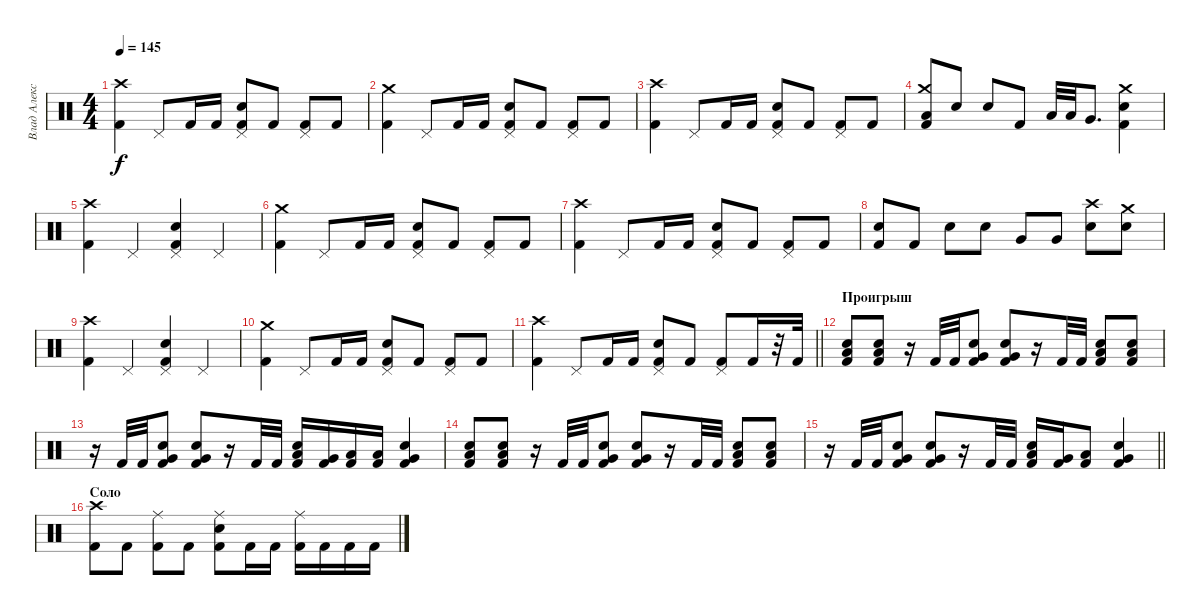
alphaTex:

\track ("Влад Алексеенко" "Влад Алекс") {instrument percussion}
\staff {score}
\articulation defaults
\ts (4 4)
\tempo 145
\clef neutral
\ks c
("Crash high (hit)" "Kick (hit) 2").4{dy f} "Pedal Hi-Hat (hit)".8 "Kick (hit) 2".16 "Kick (hit) 2".16 ("Pedal Hi-Hat (hit)" "Electric Snare (hit)" "Kick (hit) 2").8 "Kick (hit) 2".8 ("Pedal Hi-Hat (hit)" "Kick (hit) 2").8 "Kick (hit) 2".8 |
("Crash medium (hit)" "Kick (hit) 2").4 "Pedal Hi-Hat (hit)".8 "Kick (hit) 2".16 "Kick (hit) 2".16 ("Pedal Hi-Hat (hit)" "Electric Snare (hit)" "Kick (hit) 2").8 "Kick (hit) 2".8 ("Pedal Hi-Hat (hit)" "Kick (hit) 2").8 "Kick (hit) 2".8 |
("Crash high (hit)" "Kick (hit) 2").4 "Pedal Hi-Hat (hit)".8 "Kick (hit) 2".16 "Kick (hit) 2".16 ("Pedal Hi-Hat (hit)" "Electric Snare (hit)" "Kick (hit) 2").8 "Kick (hit) 2".8 ("Pedal Hi-Hat (hit)" "Kick (hit) 2").8 "Kick (hit) 2".8 |
("Low Tom (hit)" "Crash medium (hit)" "Kick (hit) 2").8 "Electric Snare (hit)".8 "Electric Snare (hit)".8 "Kick (hit) 2".8 "Low Tom (hit)".32 "Low Tom (hit)".32 "Very Low Tom (hit)".8{d} ("Crash medium (hit)" "Electric Snare (hit)" "Kick (hit) 2").4 |
("Crash high (hit)" "Kick (hit) 2").4 "Pedal Hi-Hat (hit)".4 ("Pedal Hi-Hat (hit)" "Electric Snare (hit)" "Kick (hit) 2").4 "Pedal Hi-Hat (hit)".4 |
("Crash medium (hit)" "Kick (hit) 2").4 "Pedal Hi-Hat (hit)".8 "Kick (hit) 2".16 "Kick (hit) 2".16 ("Pedal Hi-Hat (hit)" "Electric Snare (hit)" "Kick (hit) 2").8 "Kick (hit) 2".8 ("Pedal Hi-Hat (hit)" "Kick (hit) 2").8 "Kick (hit) 2".8 |
("Crash high (hit)" "Kick (hit) 2").4 "Pedal Hi-Hat (hit)".8 "Kick (hit) 2".16 "Kick (hit) 2".16 ("Pedal Hi-Hat (hit)" "Electric Snare (hit)" "Kick (hit) 2").8 "Kick (hit) 2".8 ("Pedal Hi-Hat (hit)" "Kick (hit) 2").8 "Kick (hit) 2".8 |
("Electric Snare (hit)" "Kick (hit) 2").8 "Kick (hit) 2".8 "Electric Snare (hit)".8 "Electric Snare (hit)".8 "Very Low Tom (hit)".8 "Very Low Tom (hit)".8 ("Crash high (hit)" "Electric Snare (hit)").8 ("Crash medium (hit)" "Electric Snare (hit)").8 |
("Crash high (hit)" "Kick (hit) 2").4 "Pedal Hi-Hat (hit)".4 ("Pedal Hi-Hat (hit)" "Electric Snare (hit)" "Kick (hit) 2").4 "Pedal Hi-Hat (hit)".4 |
("Crash medium (hit)" "Kick (hit) 2").4 "Pedal Hi-Hat (hit)".8 "Kick (hit) 2".16 "Kick (hit) 2".16 ("Pedal Hi-Hat (hit)" "Electric Snare (hit)" "Kick (hit) 2").8 "Kick (hit) 2".8 ("Pedal Hi-Hat (hit)" "Kick (hit) 2").8 "Kick (hit) 2".8 |
\barLineRight lightlight
("Crash high (hit)" "Kick (hit) 2").4 "Pedal Hi-Hat (hit)".8 "Kick (hit) 2".16 "Kick (hit) 2".16 ("Pedal Hi-Hat (hit)" "Electric Snare (hit)" "Kick (hit) 2").8 "Kick (hit) 2".8 ("Pedal Hi-Hat (hit)" "Kick (hit) 2").8 "Kick (hit) 2".16 r.32 "Kick (hit) 2".32 |
\section ("" "Проигрыш")
("Low Tom (hit)" "Electric Snare (hit)" "Kick (hit) 2").8 ("Low Tom (hit)" "Electric Snare (hit)" "Kick (hit) 2").8 r.16 "Kick (hit) 2".32 "Kick (hit) 2".32 ("Very Low Tom (hit)" "Electric Snare (hit)" "Kick (hit) 2").8 ("Very Low Tom (hit)" "Electric Snare (hit)" "Kick (hit) 2").8 r.16 "Kick (hit) 2".32 "Kick (hit) 2".32 ("Low Tom (hit)" "Electric Snare (hit)" "Kick (hit) 2").8 ("Low Tom (hit)" "Electric Snare (hit)" "Kick (hit) 2").8 |
r.16 "Kick (hit) 2".32 "Kick (hit) 2".32 ("Very Low Tom (hit)" "Electric Snare (hit)" "Kick (hit) 2").8 ("Very Low Tom (hit)" "Electric Snare (hit)" "Kick (hit) 2").8 r.16 "Kick (hit) 2".32 "Kick (hit) 2".32 ("Low Tom (hit)" "Electric Snare (hit)" "Kick (hit) 2").16 ("Very Low Tom (hit)" "Kick (hit) 2").16 ("Low Floor Tom (hit)" "Kick (hit) 2").16 ("Low Floor Tom (hit)" "Kick (hit) 2").16 ("Very Low Tom (hit)" "Electric Snare (hit)" "Kick (hit) 2").4 |
("Low Tom (hit)" "Electric Snare (hit)" "Kick (hit) 2").8 ("Low Tom (hit)" "Electric Snare (hit)" "Kick (hit) 2").8 r.16 "Kick (hit) 2".32 "Kick (hit) 2".32 ("Very Low Tom (hit)" "Electric Snare (hit)" "Kick (hit) 2").8 ("Very Low Tom (hit)" "Electric Snare (hit)" "Kick (hit) 2").8 r.16 "Kick (hit) 2".32 "Kick (hit) 2".32 ("Low Tom (hit)" "Electric Snare (hit)" "Kick (hit) 2").8 ("Low Tom (hit)" "Electric Snare (hit)" "Kick (hit) 2").8 |
\barLineRight lightlight
r.16 "Kick (hit) 2".32 "Kick (hit) 2".32 ("Very Low Tom (hit)" "Electric Snare (hit)" "Kick (hit) 2").8 ("Very Low Tom (hit)" "Electric Snare (hit)" "Kick (hit) 2").8 r.16 "Kick (hit) 2".32 "Kick (hit) 2".32 ("Low Tom (hit)" "Electric Snare (hit)" "Kick (hit) 2").16 ("Very Low Tom (hit)" "Kick (hit) 2").16 ("Low Floor Tom (hit)" "Kick (hit) 2").8 ("Very Low Tom (hit)" "Electric Snare (hit)" "Kick (hit) 2").4 |
\section ("" "Соло")
("Crash high (hit)" "Kick (hit) 2").8 "Kick (hit) 2".8 ("Ride (middle)" "Kick (hit) 2").8 "Kick (hit) 2".8 ("Ride (middle)" "Electric Snare (hit)" "Kick (hit) 2").8 "Kick (hit) 2".16 "Kick (hit) 2".16 ("Ride (middle)" "Kick (hit) 2").16 "Kick (hit) 2".16 "Kick (hit) 2".16 "Kick (hit) 2".16
